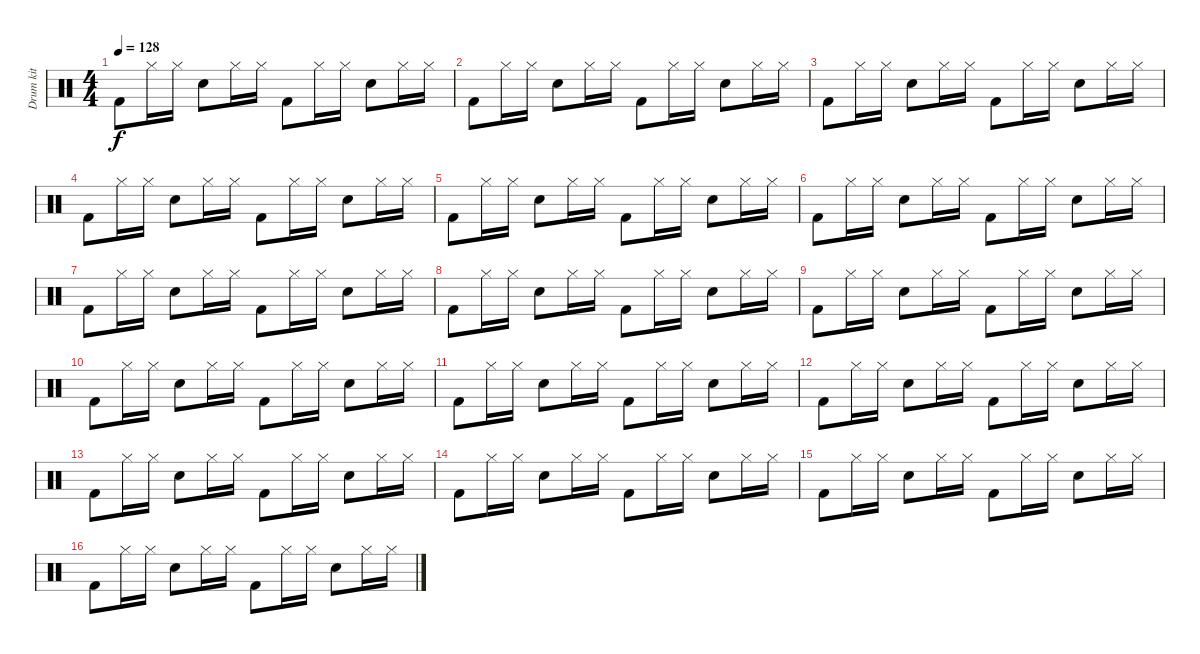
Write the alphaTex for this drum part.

\track ("Drum kit" "Drum kit") {instrument percussion}
\staff {score}
\articulation defaults
\ts (4 4)
\tempo 128
\clef neutral
\ks c "Kick (hit) 2".8{dy f} "Hi-Hat (closed)".16 "Hi-Hat (closed)".16 "Snare (hit) 2".8 "Hi-Hat (closed)".16 "Hi-Hat (closed)".16 "Kick (hit) 2".8 "Hi-Hat (closed)".16 "Hi-Hat (closed)".16 "Snare (hit) 2".8 "Hi-Hat (closed)".16 "Hi-Hat (closed)".16
|
"Kick (hit) 2".8 "Hi-Hat (closed)".16 "Hi-Hat (closed)".16 "Snare (hit) 2".8 "Hi-Hat (closed)".16 "Hi-Hat (closed)".16 "Kick (hit) 2".8 "Hi-Hat (closed)".16 "Hi-Hat (closed)".16 "Snare (hit) 2".8 "Hi-Hat (closed)".16 "Hi-Hat (closed)".16 |
"Kick (hit) 2".8 "Hi-Hat (closed)".16 "Hi-Hat (closed)".16 "Snare (hit) 2".8 "Hi-Hat (closed)".16 "Hi-Hat (closed)".16 "Kick (hit) 2".8 "Hi-Hat (closed)".16 "Hi-Hat (closed)".16 "Snare (hit) 2".8 "Hi-Hat (closed)".16 "Hi-Hat (closed)".16 |
"Kick (hit) 2".8 "Hi-Hat (closed)".16 "Hi-Hat (closed)".16 "Snare (hit) 2".8 "Hi-Hat (closed)".16 "Hi-Hat (closed)".16 "Kick (hit) 2".8 "Hi-Hat (closed)".16 "Hi-Hat (closed)".16 "Snare (hit) 2".8 "Hi-Hat (closed)".16 "Hi-Hat (closed)".16 |
"Kick (hit) 2".8 "Hi-Hat (closed)".16 "Hi-Hat (closed)".16 "Snare (hit) 2".8 "Hi-Hat (closed)".16 "Hi-Hat (closed)".16 "Kick (hit) 2".8 "Hi-Hat (closed)".16 "Hi-Hat (closed)".16 "Snare (hit) 2".8 "Hi-Hat (closed)".16 "Hi-Hat (closed)".16 |
"Kick (hit) 2".8 "Hi-Hat (closed)".16 "Hi-Hat (closed)".16 "Snare (hit) 2".8 "Hi-Hat (closed)".16 "Hi-Hat (closed)".16 "Kick (hit) 2".8 "Hi-Hat (closed)".16 "Hi-Hat (closed)".16 "Snare (hit) 2".8 "Hi-Hat (closed)".16 "Hi-Hat (closed)".16 |
"Kick (hit) 2".8 "Hi-Hat (closed)".16 "Hi-Hat (closed)".16 "Snare (hit) 2".8 "Hi-Hat (closed)".16 "Hi-Hat (closed)".16 "Kick (hit) 2".8 "Hi-Hat (closed)".16 "Hi-Hat (closed)".16 "Snare (hit) 2".8 "Hi-Hat (closed)".16 "Hi-Hat (closed)".16 |
"Kick (hit) 2".8 "Hi-Hat (closed)".16 "Hi-Hat (closed)".16 "Snare (hit) 2".8 "Hi-Hat (closed)".16 "Hi-Hat (closed)".16 "Kick (hit) 2".8 "Hi-Hat (closed)".16 "Hi-Hat (closed)".16 "Snare (hit) 2".8 "Hi-Hat (closed)".16 "Hi-Hat (closed)".16 |
"Kick (hit) 2".8 "Hi-Hat (closed)".16 "Hi-Hat (closed)".16 "Snare (hit) 2".8 "Hi-Hat (closed)".16 "Hi-Hat (closed)".16 "Kick (hit) 2".8 "Hi-Hat (closed)".16 "Hi-Hat (closed)".16 "Snare (hit) 2".8 "Hi-Hat (closed)".16 "Hi-Hat (closed)".16 |
"Kick (hit) 2".8 "Hi-Hat (closed)".16 "Hi-Hat (closed)".16 "Snare (hit) 2".8 "Hi-Hat (closed)".16 "Hi-Hat (closed)".16 "Kick (hit) 2".8 "Hi-Hat (closed)".16 "Hi-Hat (closed)".16 "Snare (hit) 2".8 "Hi-Hat (closed)".16 "Hi-Hat (closed)".16 |
"Kick (hit) 2".8 "Hi-Hat (closed)".16 "Hi-Hat (closed)".16 "Snare (hit) 2".8 "Hi-Hat (closed)".16 "Hi-Hat (closed)".16 "Kick (hit) 2".8 "Hi-Hat (closed)".16 "Hi-Hat (closed)".16 "Snare (hit) 2".8 "Hi-Hat (closed)".16 "Hi-Hat (closed)".16 |
"Kick (hit) 2".8 "Hi-Hat (closed)".16 "Hi-Hat (closed)".16 "Snare (hit) 2".8 "Hi-Hat (closed)".16 "Hi-Hat (closed)".16 "Kick (hit) 2".8 "Hi-Hat (closed)".16 "Hi-Hat (closed)".16 "Snare (hit) 2".8 "Hi-Hat (closed)".16 "Hi-Hat (closed)".16 |
"Kick (hit) 2".8 "Hi-Hat (closed)".16 "Hi-Hat (closed)".16 "Snare (hit) 2".8 "Hi-Hat (closed)".16 "Hi-Hat (closed)".16 "Kick (hit) 2".8 "Hi-Hat (closed)".16 "Hi-Hat (closed)".16 "Snare (hit) 2".8 "Hi-Hat (closed)".16 "Hi-Hat (closed)".16 |
"Kick (hit) 2".8 "Hi-Hat (closed)".16 "Hi-Hat (closed)".16 "Snare (hit) 2".8 "Hi-Hat (closed)".16 "Hi-Hat (closed)".16 "Kick (hit) 2".8 "Hi-Hat (closed)".16 "Hi-Hat (closed)".16 "Snare (hit) 2".8 "Hi-Hat (closed)".16 "Hi-Hat (closed)".16 |
"Kick (hit) 2".8 "Hi-Hat (closed)".16 "Hi-Hat (closed)".16 "Snare (hit) 2".8 "Hi-Hat (closed)".16 "Hi-Hat (closed)".16 "Kick (hit) 2".8 "Hi-Hat (closed)".16 "Hi-Hat (closed)".16 "Snare (hit) 2".8 "Hi-Hat (closed)".16 "Hi-Hat (closed)".16 |
"Kick (hit) 2".8 "Hi-Hat (closed)".16 "Hi-Hat (closed)".16 "Snare (hit) 2".8 "Hi-Hat (closed)".16 "Hi-Hat (closed)".16 "Kick (hit) 2".8 "Hi-Hat (closed)".16 "Hi-Hat (closed)".16 "Snare (hit) 2".8 "Hi-Hat (closed)".16 "Hi-Hat (closed)".16
